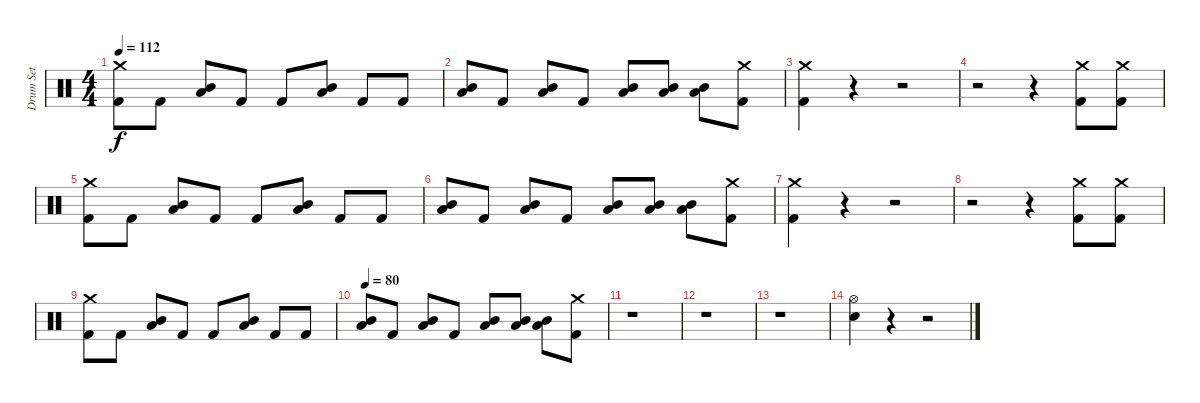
\track ("Drum Set" "Drum Set") {instrument percussion}
\staff {score}
\articulation defaults
\ts (4 4)
\tempo 112
\clef neutral
\ks c
("Crash medium (hit)" "Kick (hit) 2").8{dy f} "Kick (hit) 2".8 ("Mid Tom (hit)" "Low Tom (hit)").8 "Kick (hit) 2".8 "Kick (hit) 2".8 ("Mid Tom (hit)" "Low Tom (hit)").8 "Kick (hit) 2".8 "Kick (hit) 2".8 |
("Mid Tom (hit)" "Low Tom (hit)").8 "Kick (hit) 2".8 ("Mid Tom (hit)" "Low Tom (hit)").8 "Kick (hit) 2".8 ("Mid Tom (hit)" "Low Tom (hit)").8 ("Mid Tom (hit)" "Low Tom (hit)").8 ("Mid Tom (hit)" "Low Tom (hit)").8 ("Crash medium (hit)" "Kick (hit) 2").8 |
("Crash medium (hit)" "Kick (hit) 2").4 r.4 r.2 |
r.2 r.4 ("Crash medium (hit)" "Kick (hit) 2").8 ("Crash medium (hit)" "Kick (hit) 2").8 |
("Crash medium (hit)" "Kick (hit) 2").8 "Kick (hit) 2".8 ("Mid Tom (hit)" "Low Tom (hit)").8 "Kick (hit) 2".8 "Kick (hit) 2".8 ("Mid Tom (hit)" "Low Tom (hit)").8 "Kick (hit) 2".8 "Kick (hit) 2".8 |
("Mid Tom (hit)" "Low Tom (hit)").8 "Kick (hit) 2".8 ("Mid Tom (hit)" "Low Tom (hit)").8 "Kick (hit) 2".8 ("Mid Tom (hit)" "Low Tom (hit)").8 ("Mid Tom (hit)" "Low Tom (hit)").8 ("Mid Tom (hit)" "Low Tom (hit)").8 ("Crash medium (hit)" "Kick (hit) 2").8 |
("Crash medium (hit)" "Kick (hit) 2").4 r.4 r.2 |
r.2 r.4 ("Crash medium (hit)" "Kick (hit) 2").8 ("Crash medium (hit)" "Kick (hit) 2").8 |
("Crash medium (hit)" "Kick (hit) 2").8 "Kick (hit) 2".8 ("Mid Tom (hit)" "Low Tom (hit)").8 "Kick (hit) 2".8 "Kick (hit) 2".8 ("Mid Tom (hit)" "Low Tom (hit)").8 "Kick (hit) 2".8 "Kick (hit) 2".8 |
\tempo 80
("Mid Tom (hit)" "Low Tom (hit)").8 "Kick (hit) 2".8 ("Mid Tom (hit)" "Low Tom (hit)").8 "Kick (hit) 2".8 ("Mid Tom (hit)" "Low Tom (hit)").8 ("Mid Tom (hit)" "Low Tom (hit)").8 ("Mid Tom (hit)" "Low Tom (hit)").8 ("Crash medium (hit)" "Kick (hit) 2").8 |
r.1 |
r.1 |
r.1 |
("Hi-Hat (open)" "Snare (hit) 2").4 r.4 r.2
